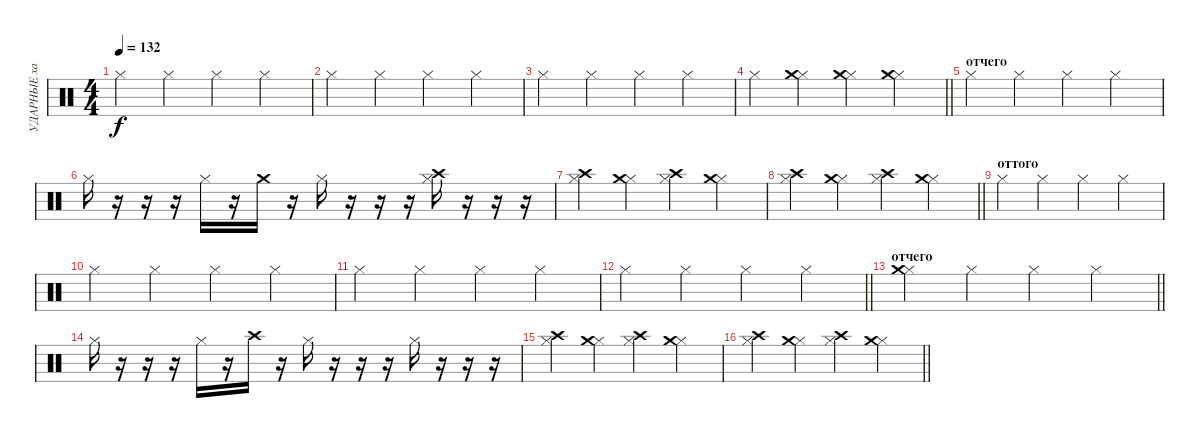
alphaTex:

\track ("УДАРНЫЕ хай хэт" "УДАРНЫЕ ха") {instrument percussion}
\staff {score}
\articulation defaults
\ts (4 4)
\tempo 132
\clef neutral
\ks c "Hi-Hat (closed)".4{dy f} "Hi-Hat (closed)".4 "Hi-Hat (closed)".4 "Hi-Hat (closed)".4
|
"Hi-Hat (closed)".4 "Hi-Hat (closed)".4 "Hi-Hat (closed)".4 "Hi-Hat (closed)".4 |
"Hi-Hat (closed)".4 "Hi-Hat (closed)".4 "Hi-Hat (closed)".4 "Hi-Hat (closed)".4 |
\barLineRight lightlight "Hi-Hat (closed)".4
("Hi-Hat (closed)" "Crash medium (hit)").4 ("Hi-Hat (closed)" "Crash medium (hit)").4 ("Hi-Hat (closed)" "Crash medium (hit)").4 |
\section ("" "отчего")
"Hi-Hat (closed)".4 "Hi-Hat (closed)".4 "Hi-Hat (closed)".4 "Hi-Hat (closed)".4 |
"Hi-Hat (closed)".16 r.16 r.16 r.16 "Hi-Hat (closed)".16 r.16 "Crash medium (hit)".16 r.16 "Hi-Hat (closed)".16 r.16 r.16 r.16 ("Hi-Hat (closed)" "Crash high (hit)").16 r.16 r.16 r.16 |
("Hi-Hat (closed)" "Crash high (hit)").4 ("Hi-Hat (closed)" "Crash medium (hit)").4 ("Hi-Hat (closed)" "Crash high (hit)").4 ("Hi-Hat (closed)" "Crash medium (hit)").4 |
\barLineRight lightlight
("Hi-Hat (closed)" "Crash high (hit)").4 ("Hi-Hat (closed)" "Crash medium (hit)").4 ("Hi-Hat (closed)" "Crash high (hit)").4 ("Hi-Hat (closed)" "Crash medium (hit)").4 |
\section ("" "оттого")
"Hi-Hat (closed)".4 "Hi-Hat (closed)".4 "Hi-Hat (closed)".4 "Hi-Hat (closed)".4 |
"Hi-Hat (closed)".4 "Hi-Hat (closed)".4 "Hi-Hat (closed)".4 "Hi-Hat (closed)".4 |
"Hi-Hat (closed)".4 "Hi-Hat (closed)".4 "Hi-Hat (closed)".4 "Hi-Hat (closed)".4 |
\barLineRight lightlight "Hi-Hat (closed)".4 "Hi-Hat (closed)".4 "Hi-Hat (closed)".4 "Hi-Hat (closed)".4
|
\section ("" "отчего")
\barLineRight lightlight
("Hi-Hat (closed)" "Crash medium (hit)").4 "Hi-Hat (closed)".4 "Hi-Hat (closed)".4 "Hi-Hat (closed)".4 |
"Hi-Hat (closed)".16 r.16 r.16 r.16 "Hi-Hat (closed)".16 r.16 "Crash high (hit)".16 r.16 "Hi-Hat (closed)".16 r.16 r.16 r.16 "Hi-Hat (closed)".16 r.16 r.16 r.16 |
("Hi-Hat (closed)" "Crash high (hit)").4 ("Hi-Hat (closed)" "Crash medium (hit)").4 ("Hi-Hat (closed)" "Crash high (hit)").4 ("Hi-Hat (closed)" "Crash medium (hit)").4 |
\barLineRight lightlight
("Hi-Hat (closed)" "Crash high (hit)").4 ("Hi-Hat (closed)" "Crash medium (hit)").4 ("Hi-Hat (closed)" "Crash high (hit)").4 ("Hi-Hat (closed)" "Crash medium (hit)").4
